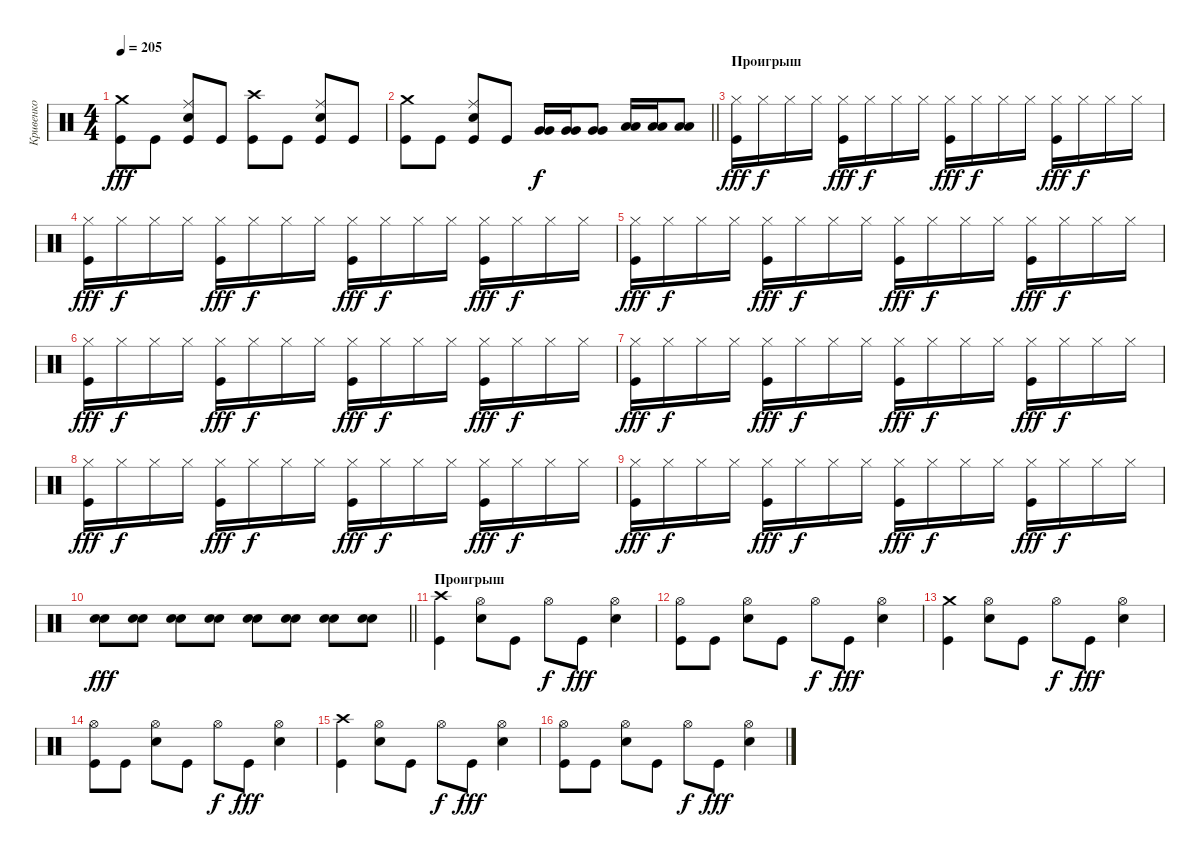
\track ("Кривенко" "Кривенко") {instrument percussion}
\staff {score}
\articulation defaults
\ts (4 4)
\tempo 205
\clef neutral
\ks c
("Crash medium (hit)" "Kick (hit)").8{dy fff} "Kick (hit)".8 ("Ride (middle)" "Electric Snare (hit)" "Kick (hit)").8 "Kick (hit)".8 ("Crash high (hit)" "Kick (hit)").8 "Kick (hit)".8 ("Ride (middle)" "Electric Snare (hit)" "Kick (hit)").8 "Kick (hit)".8 |
\barLineRight lightlight
("Crash medium (hit)" "Kick (hit)").8 "Kick (hit)".8 ("Ride (middle)" "Electric Snare (hit)" "Kick (hit)").8 "Kick (hit)".8 ("Very Low Tom (hit)" "Very Low Tom (hit)").16{dy f} ("Very Low Tom (hit)" "Very Low Tom (hit)").16 ("Very Low Tom (hit)" "Very Low Tom (hit)").8 ("Low Floor Tom (hit)" "Low Floor Tom (hit)").16 ("Low Floor Tom (hit)" "Low Floor Tom (hit)").16 ("Low Floor Tom (hit)" "Low Floor Tom (hit)").8 |
\section ("" "Проигрыш")
("Hi-Hat (closed)" "Kick (hit)").16{dy fff} "Hi-Hat (closed)".16{dy f} "Hi-Hat (closed)".16 "Hi-Hat (closed)".16 ("Hi-Hat (closed)" "Kick (hit)").16{dy fff} "Hi-Hat (closed)".16{dy f} "Hi-Hat (closed)".16 "Hi-Hat (closed)".16 ("Hi-Hat (closed)" "Kick (hit)").16{dy fff} "Hi-Hat (closed)".16{dy f} "Hi-Hat (closed)".16 "Hi-Hat (closed)".16 ("Hi-Hat (closed)" "Kick (hit)").16{dy fff} "Hi-Hat (closed)".16{dy f} "Hi-Hat (closed)".16 "Hi-Hat (closed)".16 |
("Hi-Hat (closed)" "Kick (hit)").16{dy fff} "Hi-Hat (closed)".16{dy f} "Hi-Hat (closed)".16 "Hi-Hat (closed)".16 ("Hi-Hat (closed)" "Kick (hit)").16{dy fff} "Hi-Hat (closed)".16{dy f} "Hi-Hat (closed)".16 "Hi-Hat (closed)".16 ("Hi-Hat (closed)" "Kick (hit)").16{dy fff} "Hi-Hat (closed)".16{dy f} "Hi-Hat (closed)".16 "Hi-Hat (closed)".16 ("Hi-Hat (closed)" "Kick (hit)").16{dy fff} "Hi-Hat (closed)".16{dy f} "Hi-Hat (closed)".16 "Hi-Hat (closed)".16 |
("Hi-Hat (closed)" "Kick (hit)").16{dy fff} "Hi-Hat (closed)".16{dy f} "Hi-Hat (closed)".16 "Hi-Hat (closed)".16 ("Hi-Hat (closed)" "Kick (hit)").16{dy fff} "Hi-Hat (closed)".16{dy f} "Hi-Hat (closed)".16 "Hi-Hat (closed)".16 ("Hi-Hat (closed)" "Kick (hit)").16{dy fff} "Hi-Hat (closed)".16{dy f} "Hi-Hat (closed)".16 "Hi-Hat (closed)".16 ("Hi-Hat (closed)" "Kick (hit)").16{dy fff} "Hi-Hat (closed)".16{dy f} "Hi-Hat (closed)".16 "Hi-Hat (closed)".16 |
("Hi-Hat (closed)" "Kick (hit)").16{dy fff} "Hi-Hat (closed)".16{dy f} "Hi-Hat (closed)".16 "Hi-Hat (closed)".16 ("Hi-Hat (closed)" "Kick (hit)").16{dy fff} "Hi-Hat (closed)".16{dy f} "Hi-Hat (closed)".16 "Hi-Hat (closed)".16 ("Hi-Hat (closed)" "Kick (hit)").16{dy fff} "Hi-Hat (closed)".16{dy f} "Hi-Hat (closed)".16 "Hi-Hat (closed)".16 ("Hi-Hat (closed)" "Kick (hit)").16{dy fff} "Hi-Hat (closed)".16{dy f} "Hi-Hat (closed)".16 "Hi-Hat (closed)".16 |
("Hi-Hat (closed)" "Kick (hit)").16{dy fff} "Hi-Hat (closed)".16{dy f} "Hi-Hat (closed)".16 "Hi-Hat (closed)".16 ("Hi-Hat (closed)" "Kick (hit)").16{dy fff} "Hi-Hat (closed)".16{dy f} "Hi-Hat (closed)".16 "Hi-Hat (closed)".16 ("Hi-Hat (closed)" "Kick (hit)").16{dy fff} "Hi-Hat (closed)".16{dy f} "Hi-Hat (closed)".16 "Hi-Hat (closed)".16 ("Hi-Hat (closed)" "Kick (hit)").16{dy fff} "Hi-Hat (closed)".16{dy f} "Hi-Hat (closed)".16 "Hi-Hat (closed)".16 |
("Hi-Hat (closed)" "Kick (hit)").16{dy fff} "Hi-Hat (closed)".16{dy f} "Hi-Hat (closed)".16 "Hi-Hat (closed)".16 ("Hi-Hat (closed)" "Kick (hit)").16{dy fff} "Hi-Hat (closed)".16{dy f} "Hi-Hat (closed)".16 "Hi-Hat (closed)".16 ("Hi-Hat (closed)" "Kick (hit)").16{dy fff} "Hi-Hat (closed)".16{dy f} "Hi-Hat (closed)".16 "Hi-Hat (closed)".16 ("Hi-Hat (closed)" "Kick (hit)").16{dy fff} "Hi-Hat (closed)".16{dy f} "Hi-Hat (closed)".16 "Hi-Hat (closed)".16 |
("Hi-Hat (closed)" "Kick (hit)").16{dy fff} "Hi-Hat (closed)".16{dy f} "Hi-Hat (closed)".16 "Hi-Hat (closed)".16 ("Hi-Hat (closed)" "Kick (hit)").16{dy fff} "Hi-Hat (closed)".16{dy f} "Hi-Hat (closed)".16 "Hi-Hat (closed)".16 ("Hi-Hat (closed)" "Kick (hit)").16{dy fff} "Hi-Hat (closed)".16{dy f} "Hi-Hat (closed)".16 "Hi-Hat (closed)".16 ("Hi-Hat (closed)" "Kick (hit)").16{dy fff} "Hi-Hat (closed)".16{dy f} "Hi-Hat (closed)".16 "Hi-Hat (closed)".16 |
\barLineRight lightlight
("Electric Snare (hit)" "Electric Snare (hit)").8{dy fff} ("Electric Snare (hit)" "Electric Snare (hit)").8 ("Electric Snare (hit)" "Electric Snare (hit)").8 ("Electric Snare (hit)" "Electric Snare (hit)").8 ("Electric Snare (hit)" "Electric Snare (hit)").8 ("Electric Snare (hit)" "Electric Snare (hit)").8 ("Electric Snare (hit)" "Electric Snare (hit)").8 ("Electric Snare (hit)" "Electric Snare (hit)").8 |
\section ("" "Проигрыш")
("Crash high (hit)" "Kick (hit)").4 ("Hi-Hat (open)" "Electric Snare (hit)").8 "Kick (hit)".8 "Hi-Hat (open)".8{dy f} "Kick (hit)".8{dy fff} ("Hi-Hat (open)" "Electric Snare (hit)").4 |
("Hi-Hat (open)" "Kick (hit)").8 "Kick (hit)".8 ("Hi-Hat (open)" "Electric Snare (hit)").8 "Kick (hit)".8 "Hi-Hat (open)".8{dy f} "Kick (hit)".8{dy fff} ("Hi-Hat (open)" "Electric Snare (hit)").4 |
("Crash medium (hit)" "Kick (hit)").4 ("Hi-Hat (open)" "Electric Snare (hit)").8 "Kick (hit)".8 "Hi-Hat (open)".8{dy f} "Kick (hit)".8{dy fff} ("Hi-Hat (open)" "Electric Snare (hit)").4 |
("Hi-Hat (open)" "Kick (hit)").8 "Kick (hit)".8 ("Hi-Hat (open)" "Electric Snare (hit)").8 "Kick (hit)".8 "Hi-Hat (open)".8{dy f} "Kick (hit)".8{dy fff} ("Hi-Hat (open)" "Electric Snare (hit)").4 |
("Crash high (hit)" "Kick (hit)").4 ("Hi-Hat (open)" "Electric Snare (hit)").8 "Kick (hit)".8 "Hi-Hat (open)".8{dy f} "Kick (hit)".8{dy fff} ("Hi-Hat (open)" "Electric Snare (hit)").4 |
("Hi-Hat (open)" "Kick (hit)").8 "Kick (hit)".8 ("Hi-Hat (open)" "Electric Snare (hit)").8 "Kick (hit)".8 "Hi-Hat (open)".8{dy f} "Kick (hit)".8{dy fff} ("Hi-Hat (open)" "Electric Snare (hit)").4
